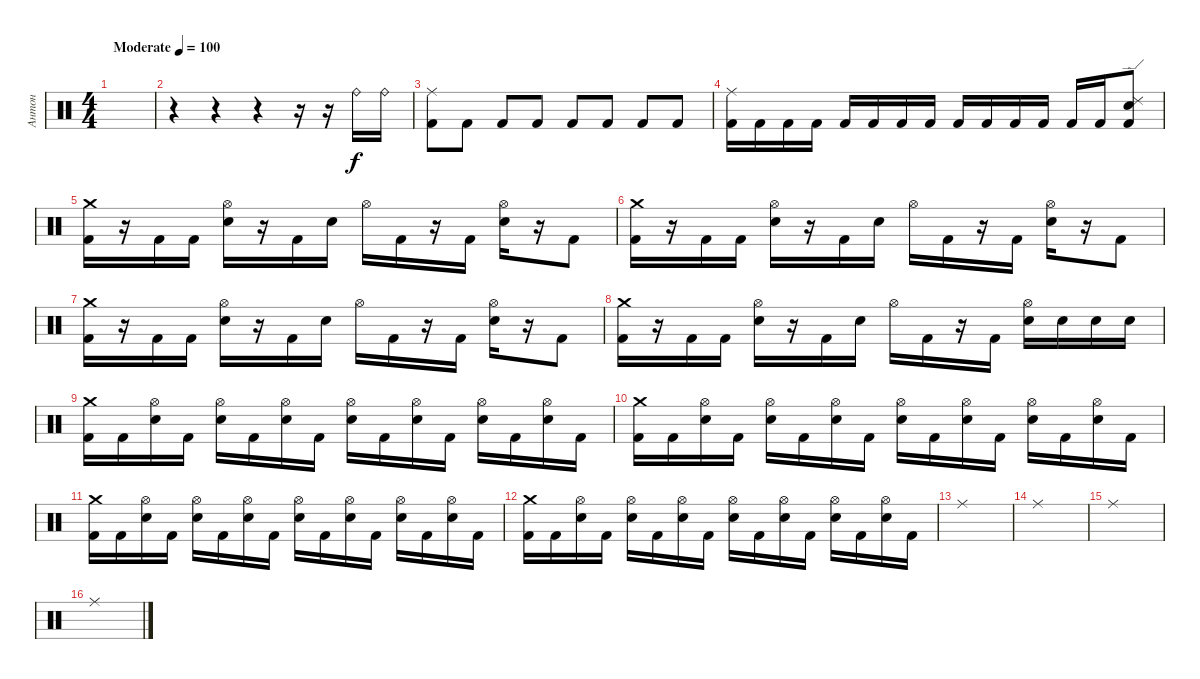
\track ("Антон" "Антон") {instrument percussion}
\staff {score}
\articulation defaults
\ts (4 4)
\tempo (100 "Moderate")
\clef neutral
\ks c
|
r.4 r.4 r.4 r.16 r.16 "Ride (bell)".16 "Ride (bell)".16 |
("Ride (middle)" "Kick (hit) 2").8 "Kick (hit) 2".8 "Kick (hit) 2".8 "Kick (hit) 2".8 "Kick (hit) 2".8 "Kick (hit) 2".8 "Kick (hit) 2".8 "Kick (hit) 2".8 |
("Ride (middle)" "Kick (hit) 2").16 "Kick (hit) 2".16 "Kick (hit) 2".16 "Kick (hit) 2".16 "Kick (hit) 2".16 "Kick (hit) 2".16 "Kick (hit) 2".16 "Kick (hit) 2".16 "Kick (hit) 2".16 "Kick (hit) 2".16 "Kick (hit) 2".16 "Kick (hit) 2".16 "Kick (hit) 2".16 "Kick (hit) 2".16 ("Ride (edge) 2" "Electric Snare (hit)" "Kick (hit) 2").8 |
("Crash medium (hit)" "Kick (hit) 2").16 r.16 "Kick (hit) 2".16 "Kick (hit) 2".16 ("Hi-Hat (open)" "Electric Snare (hit)").16 r.16 "Kick (hit) 2".16 "Electric Snare (hit)".16 "Hi-Hat (open)".16 "Kick (hit) 2".16 r.16 "Kick (hit) 2".16 ("Hi-Hat (open)" "Electric Snare (hit)").16 r.16 "Kick (hit) 2".8 |
("Crash medium (hit)" "Kick (hit) 2").16 r.16 "Kick (hit) 2".16 "Kick (hit) 2".16 ("Hi-Hat (open)" "Electric Snare (hit)").16 r.16 "Kick (hit) 2".16 "Electric Snare (hit)".16 "Hi-Hat (open)".16 "Kick (hit) 2".16 r.16 "Kick (hit) 2".16 ("Hi-Hat (open)" "Electric Snare (hit)").16 r.16 "Kick (hit) 2".8 |
("Crash medium (hit)" "Kick (hit) 2").16 r.16 "Kick (hit) 2".16 "Kick (hit) 2".16 ("Hi-Hat (open)" "Electric Snare (hit)").16 r.16 "Kick (hit) 2".16 "Electric Snare (hit)".16 "Hi-Hat (open)".16 "Kick (hit) 2".16 r.16 "Kick (hit) 2".16 ("Hi-Hat (open)" "Electric Snare (hit)").16 r.16 "Kick (hit) 2".8 |
("Crash medium (hit)" "Kick (hit) 2").16 r.16 "Kick (hit) 2".16 "Kick (hit) 2".16 ("Hi-Hat (open)" "Electric Snare (hit)").16 r.16 "Kick (hit) 2".16 "Electric Snare (hit)".16 "Hi-Hat (open)".16 "Kick (hit) 2".16 r.16 "Kick (hit) 2".16 ("Hi-Hat (open)" "Electric Snare (hit)").16 "Electric Snare (hit)".16 "Electric Snare (hit)".16 "Electric Snare (hit)".16 |
("Crash medium (hit)" "Kick (hit) 2").16 "Kick (hit) 2".16 ("Hi-Hat (open)" "Electric Snare (hit)").16 "Kick (hit) 2".16 ("Hi-Hat (open)" "Electric Snare (hit)").16 "Kick (hit) 2".16 ("Hi-Hat (open)" "Electric Snare (hit)").16 "Kick (hit) 2".16 ("Hi-Hat (open)" "Electric Snare (hit)").16 "Kick (hit) 2".16 ("Hi-Hat (open)" "Electric Snare (hit)").16 "Kick (hit) 2".16 ("Hi-Hat (open)" "Electric Snare (hit)").16 "Kick (hit) 2".16 ("Hi-Hat (open)" "Electric Snare (hit)").16 "Kick (hit) 2".16 |
("Crash medium (hit)" "Kick (hit) 2").16 "Kick (hit) 2".16 ("Hi-Hat (open)" "Electric Snare (hit)").16 "Kick (hit) 2".16 ("Hi-Hat (open)" "Electric Snare (hit)").16 "Kick (hit) 2".16 ("Hi-Hat (open)" "Electric Snare (hit)").16 "Kick (hit) 2".16 ("Hi-Hat (open)" "Electric Snare (hit)").16 "Kick (hit) 2".16 ("Hi-Hat (open)" "Electric Snare (hit)").16 "Kick (hit) 2".16 ("Hi-Hat (open)" "Electric Snare (hit)").16 "Kick (hit) 2".16 ("Hi-Hat (open)" "Electric Snare (hit)").16 "Kick (hit) 2".16 |
("Crash medium (hit)" "Kick (hit) 2").16 "Kick (hit) 2".16 ("Hi-Hat (open)" "Electric Snare (hit)").16 "Kick (hit) 2".16 ("Hi-Hat (open)" "Electric Snare (hit)").16 "Kick (hit) 2".16 ("Hi-Hat (open)" "Electric Snare (hit)").16 "Kick (hit) 2".16 ("Hi-Hat (open)" "Electric Snare (hit)").16 "Kick (hit) 2".16 ("Hi-Hat (open)" "Electric Snare (hit)").16 "Kick (hit) 2".16 ("Hi-Hat (open)" "Electric Snare (hit)").16 "Kick (hit) 2".16 ("Hi-Hat (open)" "Electric Snare (hit)").16 "Kick (hit) 2".16 |
("Crash medium (hit)" "Kick (hit) 2").16 "Kick (hit) 2".16 ("Hi-Hat (open)" "Electric Snare (hit)").16 "Kick (hit) 2".16 ("Hi-Hat (open)" "Electric Snare (hit)").16 "Kick (hit) 2".16 ("Hi-Hat (open)" "Electric Snare (hit)").16 "Kick (hit) 2".16 ("Hi-Hat (open)" "Electric Snare (hit)").16 "Kick (hit) 2".16 ("Hi-Hat (open)" "Electric Snare (hit)").16 "Kick (hit) 2".16 ("Hi-Hat (open)" "Electric Snare (hit)").16 "Kick (hit) 2".16 ("Hi-Hat (open)" "Electric Snare (hit)").16 "Kick (hit) 2".16 |
"Ride (middle)".1 |
"Ride (middle)".1 |
"Ride (middle)".1 |
"Ride (middle)".1
